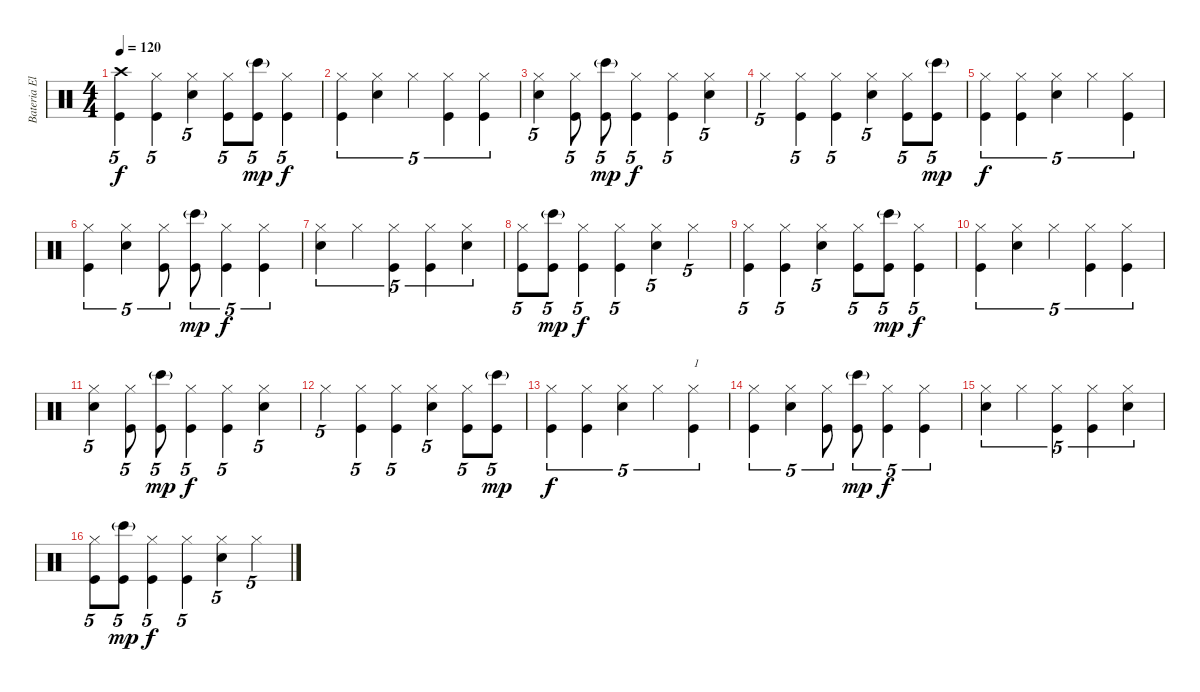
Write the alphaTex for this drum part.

\track ("Bateria Eletrônica" "Bateria El") {instrument percussion}
\staff {score}
\articulation defaults
\ts (4 4)
\tempo 120
\clef neutral
\ks c
("Kick (hit)" "Crash high (hit)").4{tu (5 4) dy f} ("Kick (hit)" "Hi-Hat (closed)").4{tu (5 4)} ("Snare (hit) 2" "Hi-Hat (closed)").4{tu (5 4)} ("Kick (hit)" "Hi-Hat (closed)").8{tu (5 4)} ("Kick (hit)" "Bongo High (hit)"{g}).8{tu (5 4) dy mp} ("Kick (hit)" "Hi-Hat (closed)").4{tu (5 4) dy f} |
("Kick (hit)" "Hi-Hat (closed)").4{tu (5 4)} ("Snare (hit) 2" "Hi-Hat (closed)").4{tu (5 4)} "Hi-Hat (closed)".4{tu (5 4)} ("Kick (hit)" "Hi-Hat (closed)").4{tu (5 4)} ("Kick (hit)" "Hi-Hat (closed)").4{tu (5 4)} |
("Snare (hit) 2" "Hi-Hat (closed)").4{tu (5 4)} ("Kick (hit)" "Hi-Hat (closed)").8{tu (5 4)} ("Kick (hit)" "Bongo High (hit)"{g}).8{tu (5 4) dy mp} ("Kick (hit)" "Hi-Hat (closed)").4{tu (5 4) dy f} ("Kick (hit)" "Hi-Hat (closed)").4{tu (5 4)} ("Snare (hit) 2" "Hi-Hat (closed)").4{tu (5 4)} |
"Hi-Hat (closed)".4{tu (5 4)} ("Kick (hit)" "Hi-Hat (closed)").4{tu (5 4)} ("Kick (hit)" "Hi-Hat (closed)").4{tu (5 4)} ("Snare (hit) 2" "Hi-Hat (closed)").4{tu (5 4)} ("Kick (hit)" "Hi-Hat (closed)").8{tu (5 4)} ("Kick (hit)" "Bongo High (hit)"{g}).8{tu (5 4) dy mp} |
("Kick (hit)" "Hi-Hat (closed)").4{tu (5 4) dy f} ("Kick (hit)" "Hi-Hat (closed)").4{tu (5 4)} ("Snare (hit) 2" "Hi-Hat (closed)").4{tu (5 4)} "Hi-Hat (closed)".4{tu (5 4)} ("Kick (hit)" "Hi-Hat (closed)").4{tu (5 4)} |
("Kick (hit)" "Hi-Hat (closed)").4{tu (5 4)} ("Snare (hit) 2" "Hi-Hat (closed)").4{tu (5 4)} ("Kick (hit)" "Hi-Hat (closed)").8{tu (5 4)} ("Kick (hit)" "Bongo High (hit)"{g}).8{tu (5 4) dy mp} ("Kick (hit)" "Hi-Hat (closed)").4{tu (5 4) dy f} ("Kick (hit)" "Hi-Hat (closed)").4{tu (5 4)} |
("Snare (hit) 2" "Hi-Hat (closed)").4{tu (5 4)} "Hi-Hat (closed)".4{tu (5 4)} ("Kick (hit)" "Hi-Hat (closed)").4{tu (5 4)} ("Kick (hit)" "Hi-Hat (closed)").4{tu (5 4)} ("Snare (hit) 2" "Hi-Hat (closed)").4{tu (5 4)} |
("Kick (hit)" "Hi-Hat (closed)").8{tu (5 4)} ("Kick (hit)" "Bongo High (hit)"{g}).8{tu (5 4) dy mp} ("Kick (hit)" "Hi-Hat (closed)").4{tu (5 4) dy f} ("Kick (hit)" "Hi-Hat (closed)").4{tu (5 4)} ("Snare (hit) 2" "Hi-Hat (closed)").4{tu (5 4)} "Hi-Hat (closed)".4{tu (5 4)} |
("Kick (hit)" "Hi-Hat (closed)").4{tu (5 4)} ("Kick (hit)" "Hi-Hat (closed)").4{tu (5 4)} ("Snare (hit) 2" "Hi-Hat (closed)").4{tu (5 4)} ("Kick (hit)" "Hi-Hat (closed)").8{tu (5 4)} ("Kick (hit)" "Bongo High (hit)"{g}).8{tu (5 4) dy mp} ("Kick (hit)" "Hi-Hat (closed)").4{tu (5 4) dy f} |
("Kick (hit)" "Hi-Hat (closed)").4{tu (5 4)} ("Snare (hit) 2" "Hi-Hat (closed)").4{tu (5 4)} "Hi-Hat (closed)".4{tu (5 4)} ("Kick (hit)" "Hi-Hat (closed)").4{tu (5 4)} ("Kick (hit)" "Hi-Hat (closed)").4{tu (5 4)} |
("Snare (hit) 2" "Hi-Hat (closed)").4{tu (5 4)} ("Kick (hit)" "Hi-Hat (closed)").8{tu (5 4)} ("Kick (hit)" "Bongo High (hit)"{g}).8{tu (5 4) dy mp} ("Kick (hit)" "Hi-Hat (closed)").4{tu (5 4) dy f} ("Kick (hit)" "Hi-Hat (closed)").4{tu (5 4)} ("Snare (hit) 2" "Hi-Hat (closed)").4{tu (5 4)} |
"Hi-Hat (closed)".4{tu (5 4)} ("Kick (hit)" "Hi-Hat (closed)").4{tu (5 4)} ("Kick (hit)" "Hi-Hat (closed)").4{tu (5 4)} ("Snare (hit) 2" "Hi-Hat (closed)").4{tu (5 4)} ("Kick (hit)" "Hi-Hat (closed)").8{tu (5 4)} ("Kick (hit)" "Bongo High (hit)"{g}).8{tu (5 4) dy mp} |
("Kick (hit)" "Hi-Hat (closed)").4{tu (5 4) dy f} ("Kick (hit)" "Hi-Hat (closed)").4{tu (5 4)} ("Snare (hit) 2" "Hi-Hat (closed)").4{tu (5 4)} "Hi-Hat (closed)".4{tu (5 4)} ("Kick (hit)" "Hi-Hat (closed)").4{tu (5 4) txt "1"} |
("Kick (hit)" "Hi-Hat (closed)").4{tu (5 4)} ("Snare (hit) 2" "Hi-Hat (closed)").4{tu (5 4)} ("Kick (hit)" "Hi-Hat (closed)").8{tu (5 4)} ("Kick (hit)" "Bongo High (hit)"{g}).8{tu (5 4) dy mp} ("Kick (hit)" "Hi-Hat (closed)").4{tu (5 4) dy f} ("Kick (hit)" "Hi-Hat (closed)").4{tu (5 4)} |
("Snare (hit) 2" "Hi-Hat (closed)").4{tu (5 4)} "Hi-Hat (closed)".4{tu (5 4)} ("Kick (hit)" "Hi-Hat (closed)").4{tu (5 4)} ("Kick (hit)" "Hi-Hat (closed)").4{tu (5 4)} ("Snare (hit) 2" "Hi-Hat (closed)").4{tu (5 4)} |
("Kick (hit)" "Hi-Hat (closed)").8{tu (5 4)} ("Kick (hit)" "Bongo High (hit)"{g}).8{tu (5 4) dy mp} ("Kick (hit)" "Hi-Hat (closed)").4{tu (5 4) dy f} ("Kick (hit)" "Hi-Hat (closed)").4{tu (5 4)} ("Snare (hit) 2" "Hi-Hat (closed)").4{tu (5 4)} "Hi-Hat (closed)".4{tu (5 4)}
